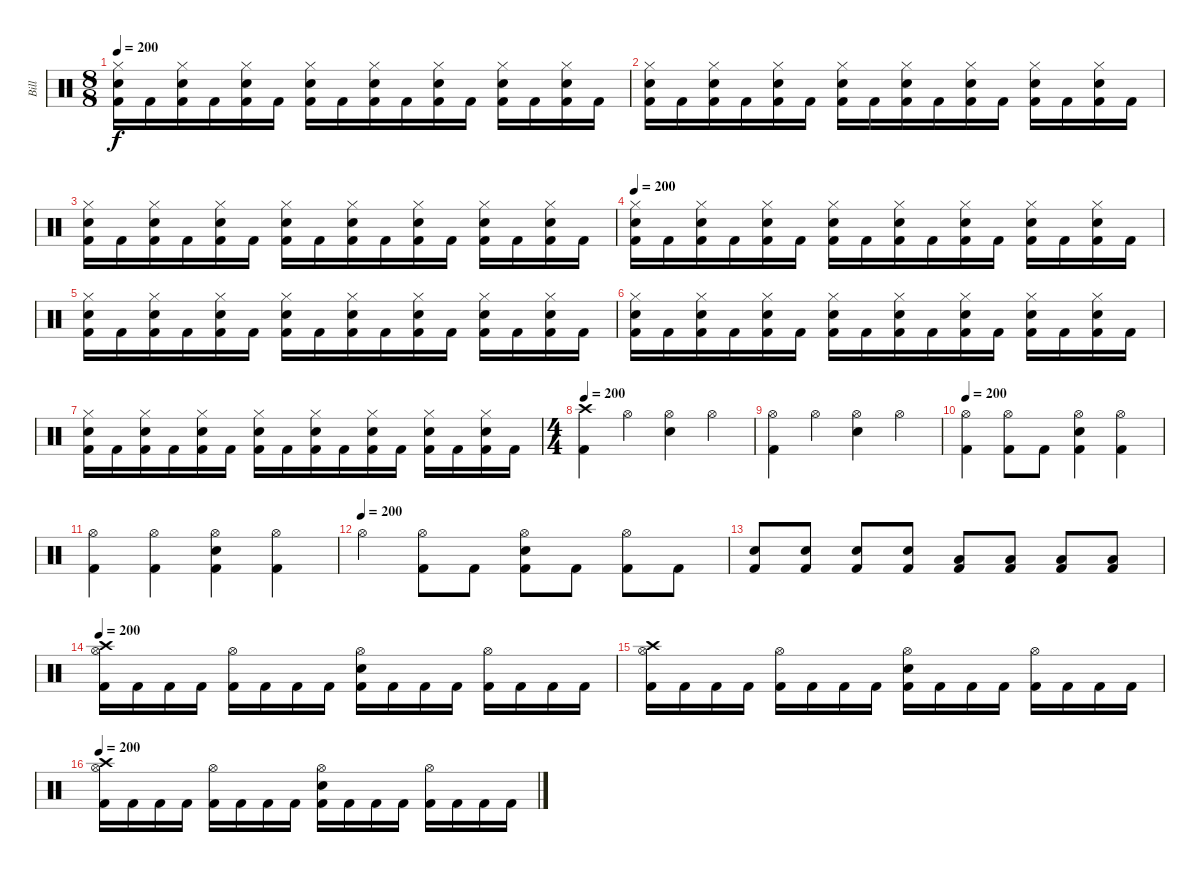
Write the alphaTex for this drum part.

\track ("Bill" "Bill") {instrument percussion}
\staff {score}
\articulation defaults
\ts (8 8)
\tempo 200
\clef neutral
\ks c
("Hi-Hat (closed)" "Snare (hit) 2" "Kick (hit) 2").16{dy f} "Kick (hit) 2".16 ("Hi-Hat (closed)" "Snare (hit) 2" "Kick (hit) 2").16 "Kick (hit) 2".16 ("Hi-Hat (closed)" "Snare (hit) 2" "Kick (hit) 2").16 "Kick (hit) 2".16 ("Hi-Hat (closed)" "Snare (hit) 2" "Kick (hit) 2").16 "Kick (hit) 2".16 ("Hi-Hat (closed)" "Snare (hit) 2" "Kick (hit) 2").16 "Kick (hit) 2".16 ("Hi-Hat (closed)" "Snare (hit) 2" "Kick (hit) 2").16 "Kick (hit) 2".16 ("Hi-Hat (closed)" "Snare (hit) 2" "Kick (hit) 2").16 "Kick (hit) 2".16 ("Hi-Hat (closed)" "Snare (hit) 2" "Kick (hit) 2").16 "Kick (hit) 2".16 |
("Hi-Hat (closed)" "Snare (hit) 2" "Kick (hit) 2").16 "Kick (hit) 2".16 ("Hi-Hat (closed)" "Snare (hit) 2" "Kick (hit) 2").16 "Kick (hit) 2".16 ("Hi-Hat (closed)" "Snare (hit) 2" "Kick (hit) 2").16 "Kick (hit) 2".16 ("Hi-Hat (closed)" "Snare (hit) 2" "Kick (hit) 2").16 "Kick (hit) 2".16 ("Hi-Hat (closed)" "Snare (hit) 2" "Kick (hit) 2").16 "Kick (hit) 2".16 ("Hi-Hat (closed)" "Snare (hit) 2" "Kick (hit) 2").16 "Kick (hit) 2".16 ("Hi-Hat (closed)" "Snare (hit) 2" "Kick (hit) 2").16 "Kick (hit) 2".16 ("Hi-Hat (closed)" "Snare (hit) 2" "Kick (hit) 2").16 "Kick (hit) 2".16 |
("Hi-Hat (closed)" "Snare (hit) 2" "Kick (hit) 2").16 "Kick (hit) 2".16 ("Hi-Hat (closed)" "Snare (hit) 2" "Kick (hit) 2").16 "Kick (hit) 2".16 ("Hi-Hat (closed)" "Snare (hit) 2" "Kick (hit) 2").16 "Kick (hit) 2".16 ("Hi-Hat (closed)" "Snare (hit) 2" "Kick (hit) 2").16 "Kick (hit) 2".16 ("Hi-Hat (closed)" "Snare (hit) 2" "Kick (hit) 2").16 "Kick (hit) 2".16 ("Hi-Hat (closed)" "Snare (hit) 2" "Kick (hit) 2").16 "Kick (hit) 2".16 ("Hi-Hat (closed)" "Snare (hit) 2" "Kick (hit) 2").16 "Kick (hit) 2".16 ("Hi-Hat (closed)" "Snare (hit) 2" "Kick (hit) 2").16 "Kick (hit) 2".16 |
\tempo 200
("Hi-Hat (closed)" "Snare (hit) 2" "Kick (hit) 2").16 "Kick (hit) 2".16 ("Hi-Hat (closed)" "Snare (hit) 2" "Kick (hit) 2").16 "Kick (hit) 2".16 ("Hi-Hat (closed)" "Snare (hit) 2" "Kick (hit) 2").16 "Kick (hit) 2".16 ("Hi-Hat (closed)" "Snare (hit) 2" "Kick (hit) 2").16 "Kick (hit) 2".16 ("Hi-Hat (closed)" "Snare (hit) 2" "Kick (hit) 2").16 "Kick (hit) 2".16 ("Hi-Hat (closed)" "Snare (hit) 2" "Kick (hit) 2").16 "Kick (hit) 2".16 ("Hi-Hat (closed)" "Snare (hit) 2" "Kick (hit) 2").16 "Kick (hit) 2".16 ("Hi-Hat (closed)" "Snare (hit) 2" "Kick (hit) 2").16 "Kick (hit) 2".16 |
("Hi-Hat (closed)" "Snare (hit) 2" "Kick (hit) 2").16 "Kick (hit) 2".16 ("Hi-Hat (closed)" "Snare (hit) 2" "Kick (hit) 2").16 "Kick (hit) 2".16 ("Hi-Hat (closed)" "Snare (hit) 2" "Kick (hit) 2").16 "Kick (hit) 2".16 ("Hi-Hat (closed)" "Snare (hit) 2" "Kick (hit) 2").16 "Kick (hit) 2".16 ("Hi-Hat (closed)" "Snare (hit) 2" "Kick (hit) 2").16 "Kick (hit) 2".16 ("Hi-Hat (closed)" "Snare (hit) 2" "Kick (hit) 2").16 "Kick (hit) 2".16 ("Hi-Hat (closed)" "Snare (hit) 2" "Kick (hit) 2").16 "Kick (hit) 2".16 ("Hi-Hat (closed)" "Snare (hit) 2" "Kick (hit) 2").16 "Kick (hit) 2".16 |
("Hi-Hat (closed)" "Snare (hit) 2" "Kick (hit) 2").16 "Kick (hit) 2".16 ("Hi-Hat (closed)" "Snare (hit) 2" "Kick (hit) 2").16 "Kick (hit) 2".16 ("Hi-Hat (closed)" "Snare (hit) 2" "Kick (hit) 2").16 "Kick (hit) 2".16 ("Hi-Hat (closed)" "Snare (hit) 2" "Kick (hit) 2").16 "Kick (hit) 2".16 ("Hi-Hat (closed)" "Snare (hit) 2" "Kick (hit) 2").16 "Kick (hit) 2".16 ("Hi-Hat (closed)" "Snare (hit) 2" "Kick (hit) 2").16 "Kick (hit) 2".16 ("Hi-Hat (closed)" "Snare (hit) 2" "Kick (hit) 2").16 "Kick (hit) 2".16 ("Hi-Hat (closed)" "Snare (hit) 2" "Kick (hit) 2").16 "Kick (hit) 2".16 |
("Hi-Hat (closed)" "Snare (hit) 2" "Kick (hit) 2").16 "Kick (hit) 2".16 ("Hi-Hat (closed)" "Snare (hit) 2" "Kick (hit) 2").16 "Kick (hit) 2".16 ("Hi-Hat (closed)" "Snare (hit) 2" "Kick (hit) 2").16 "Kick (hit) 2".16 ("Hi-Hat (closed)" "Snare (hit) 2" "Kick (hit) 2").16 "Kick (hit) 2".16 ("Hi-Hat (closed)" "Snare (hit) 2" "Kick (hit) 2").16 "Kick (hit) 2".16 ("Hi-Hat (closed)" "Snare (hit) 2" "Kick (hit) 2").16 "Kick (hit) 2".16 ("Hi-Hat (closed)" "Snare (hit) 2" "Kick (hit) 2").16 "Kick (hit) 2".16 ("Hi-Hat (closed)" "Snare (hit) 2" "Kick (hit) 2").16 "Kick (hit) 2".16 |
\ts (4 4)
\tempo 200
("Crash high (hit)" "Kick (hit) 2").4 "Hi-Hat (open)".4 ("Hi-Hat (open)" "Snare (hit) 2").4 "Hi-Hat (open)".4 |
("Hi-Hat (open)" "Kick (hit) 2").4 "Hi-Hat (open)".4 ("Hi-Hat (open)" "Snare (hit) 2").4 "Hi-Hat (open)".4 |
\tempo 200
("Hi-Hat (open)" "Kick (hit) 2").4 ("Hi-Hat (open)" "Kick (hit) 2").8 "Kick (hit) 2".8 ("Hi-Hat (open)" "Snare (hit) 2" "Kick (hit) 2").4 ("Hi-Hat (open)" "Kick (hit) 2").4 |
("Hi-Hat (open)" "Kick (hit) 2").4 ("Hi-Hat (open)" "Kick (hit) 2").4 ("Hi-Hat (open)" "Snare (hit) 2" "Kick (hit) 2").4 ("Hi-Hat (open)" "Kick (hit) 2").4 |
\tempo (200)
"Hi-Hat (open)".4 ("Hi-Hat (open)" "Kick (hit) 2").8 "Kick (hit) 2".8 ("Hi-Hat (open)" "Snare (hit) 2" "Kick (hit) 2").8 "Kick (hit) 2".8 ("Hi-Hat (open)" "Kick (hit) 2").8 "Kick (hit) 2".8 |
("Snare (hit) 2" "Kick (hit) 2").8 ("Snare (hit) 2" "Kick (hit) 2").8 ("Snare (hit) 2" "Kick (hit) 2").8 ("Snare (hit) 2" "Kick (hit) 2").8 ("Low Floor Tom (hit)" "Kick (hit) 2").8 ("Low Floor Tom (hit)" "Kick (hit) 2").8 ("Low Floor Tom (hit)" "Kick (hit) 2").8 ("Low Floor Tom (hit)" "Kick (hit) 2").8 |
\tempo 200
("Hi-Hat (open)" "Crash high (hit)" "Kick (hit) 2").16 "Kick (hit) 2".16 "Kick (hit) 2".16 "Kick (hit) 2".16 ("Hi-Hat (open)" "Kick (hit) 2").16 "Kick (hit) 2".16 "Kick (hit) 2".16 "Kick (hit) 2".16 ("Hi-Hat (open)" "Snare (hit) 2" "Kick (hit) 2").16 "Kick (hit) 2".16 "Kick (hit) 2".16 "Kick (hit) 2".16 ("Hi-Hat (open)" "Kick (hit) 2").16 "Kick (hit) 2".16 "Kick (hit) 2".16 "Kick (hit) 2".16 |
("Hi-Hat (open)" "Crash high (hit)" "Kick (hit) 2").16 "Kick (hit) 2".16 "Kick (hit) 2".16 "Kick (hit) 2".16 ("Hi-Hat (open)" "Kick (hit) 2").16 "Kick (hit) 2".16 "Kick (hit) 2".16 "Kick (hit) 2".16 ("Hi-Hat (open)" "Snare (hit) 2" "Kick (hit) 2").16 "Kick (hit) 2".16 "Kick (hit) 2".16 "Kick (hit) 2".16 ("Hi-Hat (open)" "Kick (hit) 2").16 "Kick (hit) 2".16 "Kick (hit) 2".16 "Kick (hit) 2".16 |
\tempo 200
("Hi-Hat (open)" "Crash high (hit)" "Kick (hit) 2").16 "Kick (hit) 2".16 "Kick (hit) 2".16 "Kick (hit) 2".16 ("Hi-Hat (open)" "Kick (hit) 2").16 "Kick (hit) 2".16 "Kick (hit) 2".16 "Kick (hit) 2".16 ("Hi-Hat (open)" "Snare (hit) 2" "Kick (hit) 2").16 "Kick (hit) 2".16 "Kick (hit) 2".16 "Kick (hit) 2".16 ("Hi-Hat (open)" "Kick (hit) 2").16 "Kick (hit) 2".16 "Kick (hit) 2".16 "Kick (hit) 2".16
